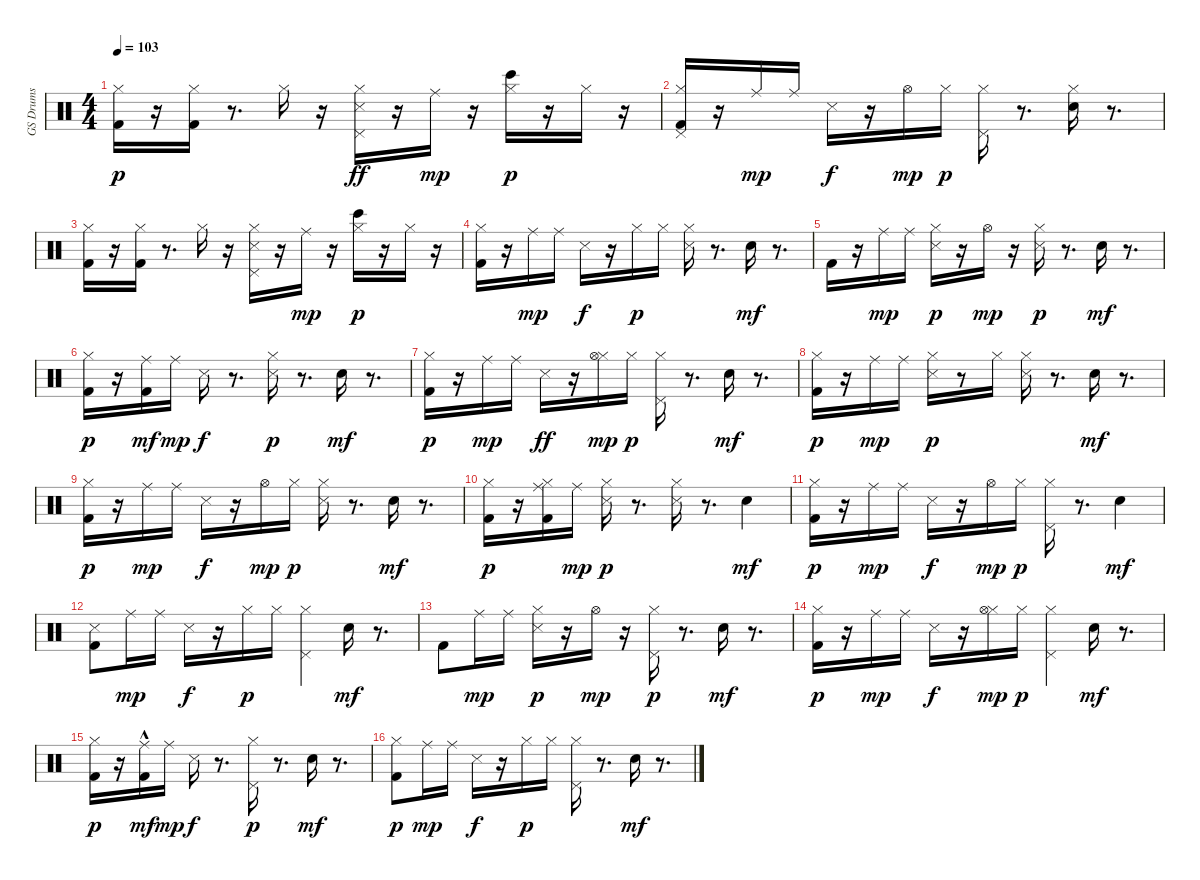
\track ("GS Drums" "GS Drums") {instrument percussion}
\staff {score}
\articulation defaults
\ts (4 4)
\tempo 103
\clef neutral
\ks c
("Kick (hit) 2" "Hi-Hat (closed)").16{dy p} r.16 ("Kick (hit) 2" "Hi-Hat (closed)").16 r.8{d} "Hi-Hat (closed)".16 r.16 ("Pedal Hi-Hat (hit)" "Hi-Hat (closed)" "Snare (side stick) 3").16{dy ff} r.16 "Ride (middle)".16{dy mp} r.16 ("Bongo High (hit)" "Hi-Hat (closed)").16{dy p} r.16 "Hi-Hat (closed)".16 r.16 |
("Pedal Hi-Hat (hit)" "Kick (hit) 2" "Hi-Hat (closed)").16 r.16 "Ride (middle)".16{dy mp} "Ride (middle)".16 "Snare (side stick) 3".16{dy f} r.16 "Hi-Hat (open)".16{dy mp} "Hi-Hat (closed)".16{dy p} ("Pedal Hi-Hat (hit)" "Hi-Hat (closed)").16 r.8{d} ("Snare (hit) 2" "Hi-Hat (closed)").16 r.8{d} |
("Kick (hit) 2" "Hi-Hat (closed)").16 r.16 ("Kick (hit) 2" "Hi-Hat (closed)").16 r.8{d} "Hi-Hat (closed)".16 r.16 ("Pedal Hi-Hat (hit)" "Hi-Hat (closed)" "Snare (side stick) 3").16 r.16 "Ride (middle)".16{dy mp} r.16 ("Bongo High (hit)" "Hi-Hat (closed)").16{dy p} r.16 "Hi-Hat (closed)".16 r.16 |
("Kick (hit) 2" "Hi-Hat (closed)").16 r.16 "Ride (middle)".16{dy mp} "Ride (middle)".16 "Snare (side stick) 3".16{dy f} r.16 "Hi-Hat (closed)".16{dy p} "Hi-Hat (closed)".16 ("Metronome (hit)" "Hi-Hat (closed)").16 r.8{d} "Snare (hit) 2".16{dy mf} r.8{d} |
"Kick (hit) 2".16 r.16 "Ride (middle)".16{dy mp} "Ride (middle)".16 ("Hi-Hat (closed)" "Snare (side stick) 3").16{dy p} r.16 "Hi-Hat (open)".16{dy mp} r.16 ("Metronome (hit)" "Hi-Hat (closed)").16{dy p} r.8{d} "Snare (hit) 2".16{dy mf} r.8{d} |
("Kick (hit) 2" "Hi-Hat (closed)").16{dy p} r.16 ("Ride (middle)" "Kick (hit) 2").16{dy mf} "Ride (middle)".16{dy mp} "Snare (side stick) 3".16{dy f} r.8{d} ("Metronome (hit)" "Hi-Hat (closed)").16{dy p} r.8{d} "Snare (hit) 2".16{dy mf} r.8{d} |
("Kick (hit) 2" "Hi-Hat (closed)").16{dy p} r.16 "Ride (middle)".16{dy mp} "Ride (middle)".16 "Snare (side stick) 3".16{dy ff} r.16 ("Hi-Hat (closed)" "Hi-Hat (open)").16{dy mp} "Hi-Hat (closed)".16{dy p} ("Pedal Hi-Hat (hit)" "Hi-Hat (closed)").16 r.8{d} "Snare (hit) 2".16{dy mf} r.8{d} |
("Kick (hit) 2" "Hi-Hat (closed)").16{dy p} r.16 "Ride (middle)".16{dy mp} "Ride (middle)".16 ("Hi-Hat (closed)" "Snare (side stick) 3").16{dy p} r.8 "Hi-Hat (closed)".16 ("Metronome (hit)" "Hi-Hat (closed)").16 r.8{d} "Snare (hit) 2".16{dy mf} r.8{d} |
("Kick (hit) 2" "Hi-Hat (closed)").16{dy p} r.16 "Ride (middle)".16{dy mp} "Ride (middle)".16 "Snare (side stick) 3".16{dy f} r.16 "Hi-Hat (open)".16{dy mp} "Hi-Hat (closed)".16{dy p} ("Metronome (hit)" "Hi-Hat (closed)").16 r.8{d} "Snare (hit) 2".16{dy mf} r.8{d} |
("Kick (hit) 2" "Hi-Hat (closed)").16{dy p} r.16 ("Ride (middle)" "Kick (hit) 2" "Hi-Hat (closed)").16 "Ride (middle)".16{dy mp} ("Hi-Hat (closed)" "Snare (side stick) 3").16{dy p} r.8{d} ("Metronome (hit)" "Hi-Hat (closed)").16 r.8{d} "Snare (hit) 2".4{dy mf} |
("Kick (hit) 2" "Hi-Hat (closed)").16{dy p} r.16 "Ride (middle)".16{dy mp} "Ride (middle)".16 "Snare (side stick) 3".16{dy f} r.16 "Hi-Hat (open)".16{dy mp} "Hi-Hat (closed)".16{dy p} ("Pedal Hi-Hat (hit)" "Hi-Hat (closed)").16 r.8{d} "Snare (hit) 2".4{dy mf} |
("Kick (hit) 2" "Snare (side stick) 3").8 "Ride (middle)".16{dy mp} "Ride (middle)".16 "Snare (side stick) 3".16{dy f} r.16 "Hi-Hat (closed)".16{dy p} "Hi-Hat (closed)".16 ("Pedal Hi-Hat (hit)" "Hi-Hat (closed)").4 "Snare (hit) 2".16{dy mf} r.8{d} |
"Kick (hit) 2".8 "Ride (middle)".16{dy mp} "Ride (middle)".16 ("Hi-Hat (closed)" "Snare (side stick) 3").16{dy p} r.16 "Hi-Hat (open)".16{dy mp} r.16 ("Pedal Hi-Hat (hit)" "Hi-Hat (closed)").16{dy p} r.8{d} "Snare (hit) 2".16{dy mf} r.8{d} |
("Kick (hit) 2" "Hi-Hat (closed)").16{dy p} r.16 "Ride (middle)".16{dy mp} "Ride (middle)".16 "Snare (side stick) 3".16{dy f} r.16 ("Hi-Hat (closed)" "Hi-Hat (open)").16{dy mp} "Hi-Hat (closed)".16{dy p} ("Pedal Hi-Hat (hit)" "Hi-Hat (closed)").4 "Snare (hit) 2".16{dy mf} r.8{d} |
("Kick (hit) 2" "Hi-Hat (closed)").16{dy p} r.16 ("Ride (middle)" "Kick (hit) 2"{hac}).16{dy mf} "Ride (middle)".16{dy mp} "Snare (side stick) 3".16{dy f} r.8{d} ("Pedal Hi-Hat (hit)" "Hi-Hat (closed)").16{dy p} r.8{d} "Snare (hit) 2".16{dy mf} r.8{d} |
("Kick (hit) 2" "Hi-Hat (closed)").8{dy p} "Ride (middle)".16{dy mp} "Ride (middle)".16 "Snare (side stick) 3".16{dy f} r.16 "Hi-Hat (closed)".16{dy p} "Hi-Hat (closed)".16 ("Pedal Hi-Hat (hit)" "Hi-Hat (closed)").16 r.8{d} "Snare (hit) 2".16{dy mf} r.8{d}
